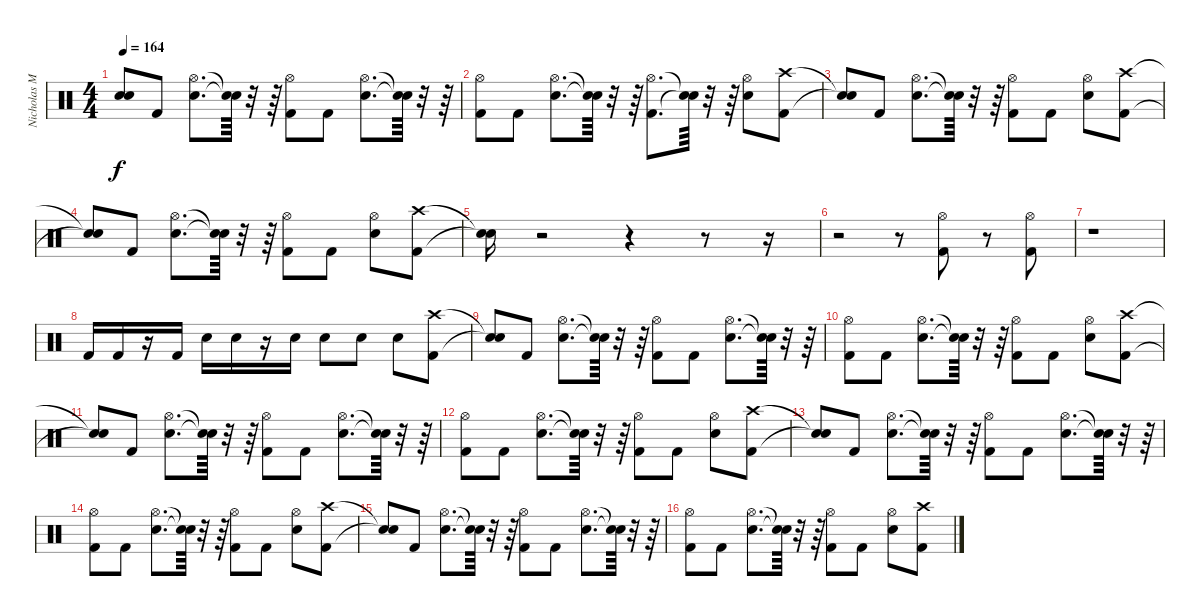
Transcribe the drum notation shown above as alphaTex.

\track ("Nicholas McBrain (Drums)" "Nicholas M") {instrument percussion}
\staff {score}
\articulation defaults
\ts (4 4)
\tempo 164
\clef neutral
\ks c
("Snare (hit)"{t} "Snare (hit)"{t}).8{dy f} "Kick (hit) 2".8 ("Snare (hit) 2" "Hi-Hat (open)").8{d} ("Snare (hit)"{t} "Snare (hit)"{t}).64 r.32 r.64 ("Kick (hit) 2" "Hi-Hat (open)").8 "Kick (hit) 2".8 ("Snare (hit) 2" "Hi-Hat (open)").8{d} ("Snare (hit)"{t} "Snare (hit)"{t}).64 r.32 r.64 |
("Kick (hit) 2" "Hi-Hat (open)").8 "Kick (hit) 2".8 ("Snare (hit) 2" "Hi-Hat (open)").8{d} ("Snare (hit)"{t} "Snare (hit)"{t}).64 r.32 r.64 ("Kick (hit) 2" "Hi-Hat (open)").8{d} ("Snare (hit)"{t} "Snare (hit)"{t}).64 r.32 r.64 ("Snare (hit) 2" "Hi-Hat (open)").8 ("Kick (hit) 2" "Crash high (hit)").8 |
("Snare (hit)"{t} "Snare (hit)"{t}).8 "Kick (hit) 2".8 ("Snare (hit) 2" "Hi-Hat (open)").8{d} ("Snare (hit)"{t} "Snare (hit)"{t}).64 r.32 r.64 ("Kick (hit) 2" "Hi-Hat (open)").8 "Kick (hit) 2".8 ("Snare (hit) 2" "Hi-Hat (open)").8 ("Kick (hit) 2" "Crash high (hit)").8 |
("Snare (hit)"{t} "Snare (hit)"{t}).8 "Kick (hit) 2".8 ("Snare (hit) 2" "Hi-Hat (open)").8{d} ("Snare (hit)"{t} "Snare (hit)"{t}).64 r.32 r.64 ("Kick (hit) 2" "Hi-Hat (open)").8 "Kick (hit) 2".8 ("Snare (hit) 2" "Hi-Hat (open)").8 ("Kick (hit) 2" "Crash high (hit)").8 |
("Snare (hit)"{t} "Snare (hit)"{t}).16 r.2 r.4 r.8 r.16 |
r.2 r.8 ("Kick (hit) 2" "Hi-Hat (open)").8 r.8 ("Kick (hit) 2" "Hi-Hat (open)").8 |
r.1 |
"Kick (hit) 2".16 "Kick (hit) 2".16 r.16 "Kick (hit) 2".16 "Snare (hit) 2".16 "Snare (hit) 2".16 r.16 "Snare (hit) 2".16 "Snare (hit) 2".8 "Snare (hit) 2".8 "Snare (hit) 2".8 ("Kick (hit) 2" "Crash high (hit)").8 |
("Snare (hit)"{t} "Snare (hit)"{t}).8 "Kick (hit) 2".8 ("Snare (hit) 2" "Hi-Hat (open)").8{d} ("Snare (hit)"{t} "Snare (hit)"{t}).64 r.32 r.64 ("Kick (hit) 2" "Hi-Hat (open)").8 "Kick (hit) 2".8 ("Snare (hit) 2" "Hi-Hat (open)").8{d} ("Snare (hit)"{t} "Snare (hit)"{t}).64 r.32 r.64 |
("Kick (hit) 2" "Hi-Hat (open)").8 "Kick (hit) 2".8 ("Snare (hit) 2" "Hi-Hat (open)").8{d} ("Snare (hit)"{t} "Snare (hit)"{t}).64 r.32 r.64 ("Kick (hit) 2" "Hi-Hat (open)").8 "Kick (hit) 2".8 ("Snare (hit) 2" "Hi-Hat (open)").8 ("Kick (hit) 2" "Crash high (hit)").8 |
("Snare (hit)"{t} "Snare (hit)"{t}).8 "Kick (hit) 2".8 ("Snare (hit) 2" "Hi-Hat (open)").8{d} ("Snare (hit)"{t} "Snare (hit)"{t}).64 r.32 r.64 ("Kick (hit) 2" "Hi-Hat (open)").8 "Kick (hit) 2".8 ("Snare (hit) 2" "Hi-Hat (open)").8{d} ("Snare (hit)"{t} "Snare (hit)"{t}).64 r.32 r.64 |
("Kick (hit) 2" "Hi-Hat (open)").8 "Kick (hit) 2".8 ("Snare (hit) 2" "Hi-Hat (open)").8{d} ("Snare (hit)"{t} "Snare (hit)"{t}).64 r.32 r.64 ("Kick (hit) 2" "Hi-Hat (open)").8 "Kick (hit) 2".8 ("Snare (hit) 2" "Hi-Hat (open)").8 ("Kick (hit) 2" "Crash high (hit)").8 |
("Snare (hit)"{t} "Snare (hit)"{t}).8 "Kick (hit) 2".8 ("Snare (hit) 2" "Hi-Hat (open)").8{d} ("Snare (hit)"{t} "Snare (hit)"{t}).64 r.32 r.64 ("Kick (hit) 2" "Hi-Hat (open)").8 "Kick (hit) 2".8 ("Snare (hit) 2" "Hi-Hat (open)").8{d} ("Snare (hit)"{t} "Snare (hit)"{t}).64 r.32 r.64 |
("Kick (hit) 2" "Hi-Hat (open)").8 "Kick (hit) 2".8 ("Snare (hit) 2" "Hi-Hat (open)").8{d} ("Snare (hit)"{t} "Snare (hit)"{t}).64 r.32 r.64 ("Kick (hit) 2" "Hi-Hat (open)").8 "Kick (hit) 2".8 ("Snare (hit) 2" "Hi-Hat (open)").8 ("Kick (hit) 2" "Crash high (hit)").8 |
("Snare (hit)"{t} "Snare (hit)"{t}).8 "Kick (hit) 2".8 ("Snare (hit) 2" "Hi-Hat (open)").8{d} ("Snare (hit)"{t} "Snare (hit)"{t}).64 r.32 r.64 ("Kick (hit) 2" "Hi-Hat (open)").8 "Kick (hit) 2".8 ("Snare (hit) 2" "Hi-Hat (open)").8{d} ("Snare (hit)"{t} "Snare (hit)"{t}).64 r.32 r.64 |
("Kick (hit) 2" "Hi-Hat (open)").8 "Kick (hit) 2".8 ("Snare (hit) 2" "Hi-Hat (open)").8{d} ("Snare (hit)"{t} "Snare (hit)"{t}).64 r.32 r.64 ("Kick (hit) 2" "Hi-Hat (open)").8 "Kick (hit) 2".8 ("Snare (hit) 2" "Hi-Hat (open)").8 ("Kick (hit) 2" "Crash high (hit)").8
